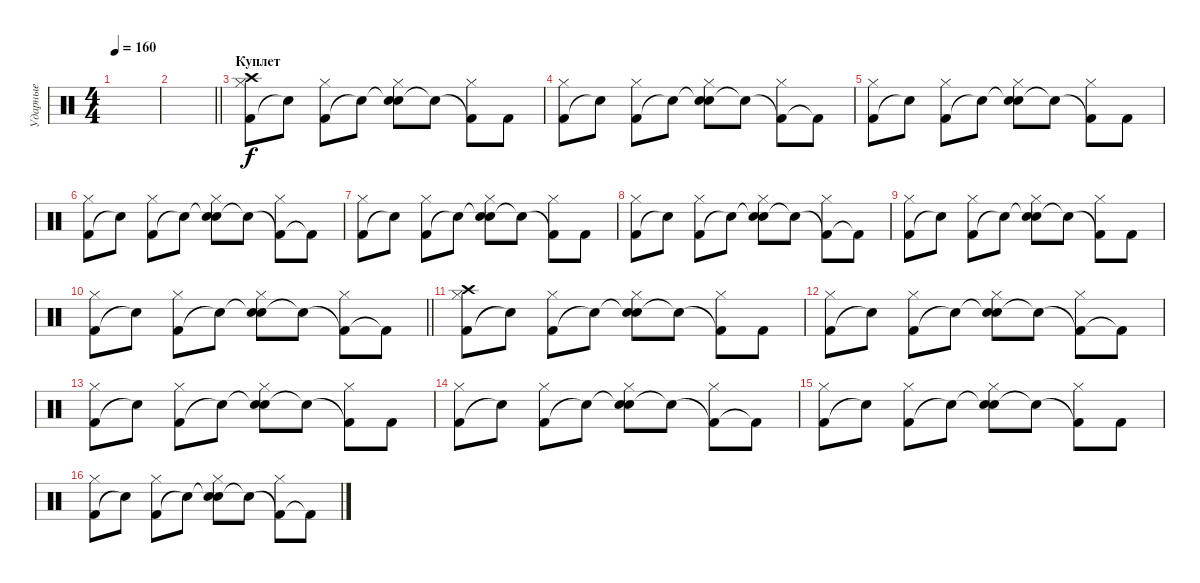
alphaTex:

\track ("Ударные" "Ударные") {instrument percussion}
\staff {score}
\articulation defaults
\ts (4 4)
\tempo 160
\clef neutral
\ks c
|
\barLineRight lightlight
|
\section ("" "Куплет")
("Kick (hit) 2" "Hi-Hat (closed)" "Crash high (hit)").8 "Snare (hit)"{t}.8 ("Kick (hit) 2" "Hi-Hat (closed)").8 "Snare (hit)"{t}.8 ("Snare (hit)"{t} "Hi-Hat (closed)" "Snare (hit) 2").8 "Snare (hit)"{t}.8 ("Kick (hit) 2"{t} "Hi-Hat (closed)").8 "Kick (hit) 2".8 |
("Kick (hit) 2" "Hi-Hat (closed)").8 "Snare (hit)"{t}.8 ("Kick (hit) 2" "Hi-Hat (closed)").8 "Snare (hit)"{t}.8 ("Snare (hit)"{t} "Hi-Hat (closed)" "Snare (hit) 2").8 "Snare (hit)"{t}.8 ("Kick (hit) 2"{t} "Hi-Hat (closed)").8 "Kick (hit) 2"{t}.8 |
("Kick (hit) 2" "Hi-Hat (closed)").8 "Snare (hit)"{t}.8 ("Kick (hit) 2" "Hi-Hat (closed)").8 "Snare (hit)"{t}.8 ("Snare (hit)"{t} "Hi-Hat (closed)" "Snare (hit) 2").8 "Snare (hit)"{t}.8 ("Kick (hit) 2"{t} "Hi-Hat (closed)").8 "Kick (hit) 2".8 |
("Kick (hit) 2" "Hi-Hat (closed)").8 "Snare (hit)"{t}.8 ("Kick (hit) 2" "Hi-Hat (closed)").8 "Snare (hit)"{t}.8 ("Snare (hit)"{t} "Hi-Hat (closed)" "Snare (hit) 2").8 "Snare (hit)"{t}.8 ("Kick (hit) 2"{t} "Hi-Hat (closed)").8 "Kick (hit) 2"{t}.8 |
("Kick (hit) 2" "Hi-Hat (closed)").8 "Snare (hit)"{t}.8 ("Kick (hit) 2" "Hi-Hat (closed)").8 "Snare (hit)"{t}.8 ("Snare (hit)"{t} "Hi-Hat (closed)" "Snare (hit) 2").8 "Snare (hit)"{t}.8 ("Kick (hit) 2"{t} "Hi-Hat (closed)").8 "Kick (hit) 2".8 |
("Kick (hit) 2" "Hi-Hat (closed)").8 "Snare (hit)"{t}.8 ("Kick (hit) 2" "Hi-Hat (closed)").8 "Snare (hit)"{t}.8 ("Snare (hit)"{t} "Hi-Hat (closed)" "Snare (hit) 2").8 "Snare (hit)"{t}.8 ("Kick (hit) 2"{t} "Hi-Hat (closed)").8 "Kick (hit) 2"{t}.8 |
("Kick (hit) 2" "Hi-Hat (closed)").8 "Snare (hit)"{t}.8 ("Kick (hit) 2" "Hi-Hat (closed)").8 "Snare (hit)"{t}.8 ("Snare (hit)"{t} "Hi-Hat (closed)" "Snare (hit) 2").8 "Snare (hit)"{t}.8 ("Kick (hit) 2"{t} "Hi-Hat (closed)").8 "Kick (hit) 2".8 |
\barLineRight lightlight
("Kick (hit) 2" "Hi-Hat (closed)").8 "Snare (hit)"{t}.8 ("Kick (hit) 2" "Hi-Hat (closed)").8 "Snare (hit)"{t}.8 ("Snare (hit)"{t} "Hi-Hat (closed)" "Snare (hit) 2").8 "Snare (hit)"{t}.8 ("Kick (hit) 2"{t} "Hi-Hat (closed)").8 "Kick (hit) 2"{t}.8 |
\section ("" " ")
("Kick (hit) 2" "Hi-Hat (closed)" "Crash high (hit)").8 "Snare (hit)"{t}.8 ("Kick (hit) 2" "Hi-Hat (closed)").8 "Snare (hit)"{t}.8 ("Snare (hit)"{t} "Hi-Hat (closed)" "Snare (hit) 2").8 "Snare (hit)"{t}.8 ("Kick (hit) 2"{t} "Hi-Hat (closed)").8 "Kick (hit) 2".8 |
("Kick (hit) 2" "Hi-Hat (closed)").8 "Snare (hit)"{t}.8 ("Kick (hit) 2" "Hi-Hat (closed)").8 "Snare (hit)"{t}.8 ("Snare (hit)"{t} "Hi-Hat (closed)" "Snare (hit) 2").8 "Snare (hit)"{t}.8 ("Kick (hit) 2"{t} "Hi-Hat (closed)").8 "Kick (hit) 2"{t}.8 |
("Kick (hit) 2" "Hi-Hat (closed)").8 "Snare (hit)"{t}.8 ("Kick (hit) 2" "Hi-Hat (closed)").8 "Snare (hit)"{t}.8 ("Snare (hit)"{t} "Hi-Hat (closed)" "Snare (hit) 2").8 "Snare (hit)"{t}.8 ("Kick (hit) 2"{t} "Hi-Hat (closed)").8 "Kick (hit) 2".8 |
("Kick (hit) 2" "Hi-Hat (closed)").8 "Snare (hit)"{t}.8 ("Kick (hit) 2" "Hi-Hat (closed)").8 "Snare (hit)"{t}.8 ("Snare (hit)"{t} "Hi-Hat (closed)" "Snare (hit) 2").8 "Snare (hit)"{t}.8 ("Kick (hit) 2"{t} "Hi-Hat (closed)").8 "Kick (hit) 2"{t}.8 |
("Kick (hit) 2" "Hi-Hat (closed)").8 "Snare (hit)"{t}.8 ("Kick (hit) 2" "Hi-Hat (closed)").8 "Snare (hit)"{t}.8 ("Snare (hit)"{t} "Hi-Hat (closed)" "Snare (hit) 2").8 "Snare (hit)"{t}.8 ("Kick (hit) 2"{t} "Hi-Hat (closed)").8 "Kick (hit) 2".8 |
("Kick (hit) 2" "Hi-Hat (closed)").8 "Snare (hit)"{t}.8 ("Kick (hit) 2" "Hi-Hat (closed)").8 "Snare (hit)"{t}.8 ("Snare (hit)"{t} "Hi-Hat (closed)" "Snare (hit) 2").8 "Snare (hit)"{t}.8 ("Kick (hit) 2"{t} "Hi-Hat (closed)").8 "Kick (hit) 2"{t}.8
